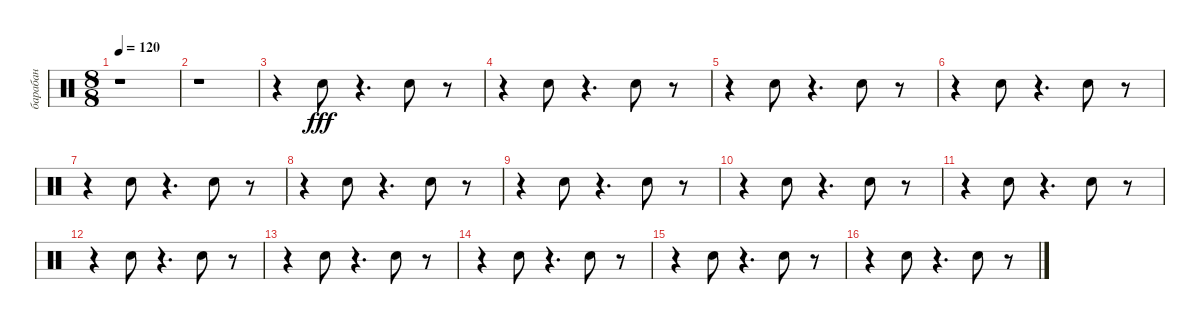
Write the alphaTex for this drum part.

\track ("барабан" "барабан") {instrument percussion}
\staff {score}
\articulation defaults
\ts (8 8)
\tempo 120
\clef neutral
\ks c
r.1{dy fff} |
r.1 |
r.4 "Snare (hit) 2".8 r.4{d} "Snare (hit) 2".8 r.8 |
r.4 "Snare (hit) 2".8 r.4{d} "Snare (hit) 2".8 r.8 |
r.4 "Snare (hit) 2".8 r.4{d} "Snare (hit) 2".8 r.8 |
r.4 "Snare (hit) 2".8 r.4{d} "Snare (hit) 2".8 r.8 |
r.4 "Snare (hit) 2".8 r.4{d} "Snare (hit) 2".8 r.8 |
r.4 "Snare (hit) 2".8 r.4{d} "Snare (hit) 2".8 r.8 |
r.4 "Snare (hit) 2".8 r.4{d} "Snare (hit) 2".8 r.8 |
r.4 "Snare (hit) 2".8 r.4{d} "Snare (hit) 2".8 r.8 |
r.4 "Snare (hit) 2".8 r.4{d} "Snare (hit) 2".8 r.8 |
r.4 "Snare (hit) 2".8 r.4{d} "Snare (hit) 2".8 r.8 |
r.4 "Snare (hit) 2".8 r.4{d} "Snare (hit) 2".8 r.8 |
r.4 "Snare (hit) 2".8 r.4{d} "Snare (hit) 2".8 r.8 |
r.4 "Snare (hit) 2".8 r.4{d} "Snare (hit) 2".8 r.8 |
r.4 "Snare (hit) 2".8 r.4{d} "Snare (hit) 2".8 r.8
